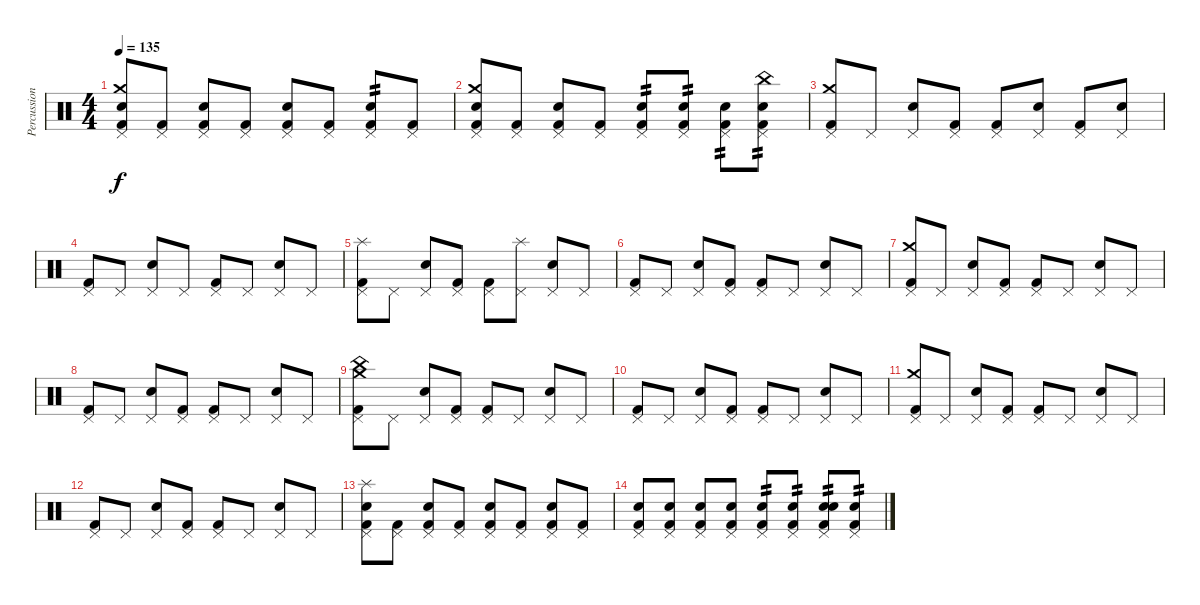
\track ("Percussion" "Percussion") {instrument percussion}
\staff {score}
\articulation defaults
\ts (4 4)
\tempo 135
\clef neutral
\ks c
("Kick (hit) 2" "Snare (hit) 2" "Crash medium (hit)" "Pedal Hi-Hat (hit)").8{dy f} ("Kick (hit) 2" "Pedal Hi-Hat (hit)").8 ("Kick (hit) 2" "Snare (hit) 2" "Pedal Hi-Hat (hit)").8 ("Kick (hit) 2" "Pedal Hi-Hat (hit)").8 ("Kick (hit) 2" "Snare (hit) 2" "Pedal Hi-Hat (hit)").8 ("Kick (hit) 2" "Pedal Hi-Hat (hit)").8 ("Kick (hit) 2" "Snare (hit) 2" "Pedal Hi-Hat (hit)").8{tp 2} ("Kick (hit) 2" "Pedal Hi-Hat (hit)").8 |
("Kick (hit) 2" "Snare (hit) 2" "Crash medium (hit)" "Pedal Hi-Hat (hit)").8 ("Kick (hit) 2" "Pedal Hi-Hat (hit)").8 ("Kick (hit) 2" "Snare (hit) 2" "Pedal Hi-Hat (hit)").8 ("Kick (hit) 2" "Pedal Hi-Hat (hit)").8 ("Kick (hit) 2" "Snare (hit) 2" "Pedal Hi-Hat (hit)").8{tp 2} ("Kick (hit) 2" "Snare (hit) 2" "Pedal Hi-Hat (hit)").8{tp 2} ("Kick (hit) 2" "Snare (hit) 2" "Pedal Hi-Hat (hit)").8{tp 2} ("Kick (hit) 2" "Snare (hit) 2" "Pedal Hi-Hat (hit)" "China (hit)").8{tp 2} |
("Kick (hit) 2" "Pedal Hi-Hat (hit)" "Crash medium (hit)").8 "Pedal Hi-Hat (hit)".8 ("Snare (hit) 2" "Pedal Hi-Hat (hit)").8 ("Kick (hit) 2" "Pedal Hi-Hat (hit)").8 ("Kick (hit) 2" "Pedal Hi-Hat (hit)").8 ("Snare (hit) 2" "Pedal Hi-Hat (hit)").8 ("Kick (hit) 2" "Pedal Hi-Hat (hit)").8 ("Snare (hit) 2" "Pedal Hi-Hat (hit)").8 |
("Kick (hit) 2" "Pedal Hi-Hat (hit)").8 "Pedal Hi-Hat (hit)".8 ("Snare (hit) 2" "Pedal Hi-Hat (hit)").8 "Pedal Hi-Hat (hit)".8 ("Kick (hit) 2" "Pedal Hi-Hat (hit)").8 "Pedal Hi-Hat (hit)".8 ("Snare (hit) 2" "Pedal Hi-Hat (hit)").8 "Pedal Hi-Hat (hit)".8 |
("Kick (hit) 2" "Splash (hit)" "Pedal Hi-Hat (hit)").8 "Pedal Hi-Hat (hit)".8 ("Snare (hit) 2" "Pedal Hi-Hat (hit)").8 ("Kick (hit) 2" "Pedal Hi-Hat (hit)").8 ("Kick (hit) 2" "Pedal Hi-Hat (hit)").8 ("Splash (hit)" "Pedal Hi-Hat (hit)").8 ("Snare (hit) 2" "Pedal Hi-Hat (hit)").8 "Pedal Hi-Hat (hit)".8 |
("Kick (hit) 2" "Pedal Hi-Hat (hit)").8 "Pedal Hi-Hat (hit)".8 ("Snare (hit) 2" "Pedal Hi-Hat (hit)").8 ("Kick (hit) 2" "Pedal Hi-Hat (hit)").8 ("Kick (hit) 2" "Pedal Hi-Hat (hit)").8 "Pedal Hi-Hat (hit)".8 ("Snare (hit) 2" "Pedal Hi-Hat (hit)").8 "Pedal Hi-Hat (hit)".8 |
("Kick (hit) 2" "Crash medium (hit)" "Pedal Hi-Hat (hit)").8 "Pedal Hi-Hat (hit)".8 ("Snare (hit) 2" "Pedal Hi-Hat (hit)").8 ("Kick (hit) 2" "Pedal Hi-Hat (hit)").8 ("Kick (hit) 2" "Pedal Hi-Hat (hit)").8 "Pedal Hi-Hat (hit)".8 ("Snare (hit) 2" "Pedal Hi-Hat (hit)").8 "Pedal Hi-Hat (hit)".8 |
("Kick (hit) 2" "Pedal Hi-Hat (hit)").8 "Pedal Hi-Hat (hit)".8 ("Snare (hit) 2" "Pedal Hi-Hat (hit)").8 ("Kick (hit) 2" "Pedal Hi-Hat (hit)").8 ("Kick (hit) 2" "Pedal Hi-Hat (hit)").8 "Pedal Hi-Hat (hit)".8 ("Snare (hit) 2" "Pedal Hi-Hat (hit)").8 "Pedal Hi-Hat (hit)".8 |
("Kick (hit) 2" "China (hit)" "Pedal Hi-Hat (hit)" "Crash medium (hit)").8 "Pedal Hi-Hat (hit)".8 ("Snare (hit) 2" "Pedal Hi-Hat (hit)").8 ("Kick (hit) 2" "Pedal Hi-Hat (hit)").8 ("Kick (hit) 2" "Pedal Hi-Hat (hit)").8 "Pedal Hi-Hat (hit)".8 ("Snare (hit) 2" "Pedal Hi-Hat (hit)").8 "Pedal Hi-Hat (hit)".8 |
("Kick (hit) 2" "Pedal Hi-Hat (hit)").8 "Pedal Hi-Hat (hit)".8 ("Snare (hit) 2" "Pedal Hi-Hat (hit)").8 ("Kick (hit) 2" "Pedal Hi-Hat (hit)").8 ("Kick (hit) 2" "Pedal Hi-Hat (hit)").8 "Pedal Hi-Hat (hit)".8 ("Snare (hit) 2" "Pedal Hi-Hat (hit)").8 "Pedal Hi-Hat (hit)".8 |
("Kick (hit) 2" "Crash medium (hit)" "Pedal Hi-Hat (hit)").8 "Pedal Hi-Hat (hit)".8 ("Snare (hit) 2" "Pedal Hi-Hat (hit)").8 ("Kick (hit) 2" "Pedal Hi-Hat (hit)").8 ("Kick (hit) 2" "Pedal Hi-Hat (hit)").8 "Pedal Hi-Hat (hit)".8 ("Snare (hit) 2" "Pedal Hi-Hat (hit)").8 "Pedal Hi-Hat (hit)".8 |
("Kick (hit) 2" "Pedal Hi-Hat (hit)").8 "Pedal Hi-Hat (hit)".8 ("Snare (hit) 2" "Pedal Hi-Hat (hit)").8 ("Kick (hit) 2" "Pedal Hi-Hat (hit)").8 ("Kick (hit) 2" "Pedal Hi-Hat (hit)").8 "Pedal Hi-Hat (hit)".8 ("Snare (hit) 2" "Pedal Hi-Hat (hit)").8 "Pedal Hi-Hat (hit)".8 |
("Kick (hit) 2" "Snare (hit) 2" "Splash (hit)" "Pedal Hi-Hat (hit)").8 ("Kick (hit) 2" "Pedal Hi-Hat (hit)").8 ("Kick (hit) 2" "Snare (hit) 2" "Pedal Hi-Hat (hit)").8 ("Kick (hit) 2" "Pedal Hi-Hat (hit)").8 ("Kick (hit) 2" "Snare (hit) 2" "Pedal Hi-Hat (hit)").8 ("Kick (hit) 2" "Pedal Hi-Hat (hit)").8 ("Kick (hit) 2" "Snare (hit) 2" "Pedal Hi-Hat (hit)").8 ("Kick (hit) 2" "Pedal Hi-Hat (hit)").8 |
("Kick (hit) 2" "Snare (hit) 2" "Pedal Hi-Hat (hit)").8 ("Kick (hit) 2" "Snare (hit) 2" "Pedal Hi-Hat (hit)").8 ("Kick (hit) 2" "Snare (hit) 2" "Pedal Hi-Hat (hit)").8 ("Kick (hit) 2" "Snare (hit) 2" "Pedal Hi-Hat (hit)").8 ("Kick (hit) 2" "Snare (hit) 2" "Pedal Hi-Hat (hit)").8{tp 2} ("Kick (hit) 2" "Snare (hit) 2" "Pedal Hi-Hat (hit)").8{tp 2} ("Kick (hit) 2" "Snare (hit) 2" "Snare (hit)" "Pedal Hi-Hat (hit)").8{tp 2} ("Kick (hit) 2" "Snare (hit) 2" "Pedal Hi-Hat (hit)").8{tp 2}
